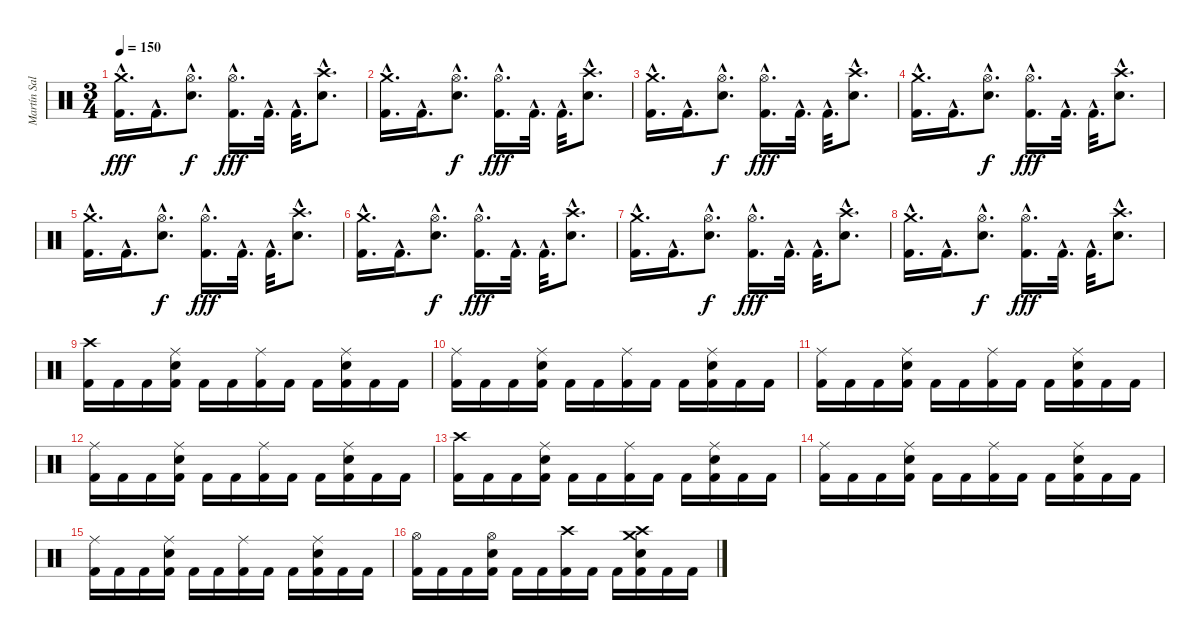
\track ("Martín Salariato" "Martín Sal") {instrument percussion}
\staff {score}
\articulation defaults
\ts (3 4)
\tempo 150
\clef neutral
\ks c
("Crash medium (hit)"{hac} "Kick (hit) 2"{hac}).16{d dy fff} "Kick (hit) 2"{hac}.16{d} ("Hi-Hat (open)"{hac} "Snare (hit) 2"{hac}).8{d dy f} ("Hi-Hat (open)"{hac} "Kick (hit) 2"{hac}).16{d dy fff} "Kick (hit) 2"{hac}.32{d} "Kick (hit) 2"{hac}.32{d} ("Crash high (hit)"{hac} "Snare (hit) 2"{hac}).8{d} |
("Crash medium (hit)"{hac} "Kick (hit) 2"{hac}).16{d} "Kick (hit) 2"{hac}.16{d} ("Hi-Hat (open)"{hac} "Snare (hit) 2"{hac}).8{d dy f} ("Hi-Hat (open)"{hac} "Kick (hit) 2"{hac}).16{d dy fff} "Kick (hit) 2"{hac}.32{d} "Kick (hit) 2"{hac}.32{d} ("Crash high (hit)"{hac} "Snare (hit) 2"{hac}).8{d} |
("Crash medium (hit)"{hac} "Kick (hit) 2"{hac}).16{d} "Kick (hit) 2"{hac}.16{d} ("Hi-Hat (open)"{hac} "Snare (hit) 2"{hac}).8{d dy f} ("Hi-Hat (open)"{hac} "Kick (hit) 2"{hac}).16{d dy fff} "Kick (hit) 2"{hac}.32{d} "Kick (hit) 2"{hac}.32{d} ("Crash high (hit)"{hac} "Snare (hit) 2"{hac}).8{d} |
("Crash medium (hit)"{hac} "Kick (hit) 2"{hac}).16{d} "Kick (hit) 2"{hac}.16{d} ("Hi-Hat (open)"{hac} "Snare (hit) 2"{hac}).8{d dy f} ("Hi-Hat (open)"{hac} "Kick (hit) 2"{hac}).16{d dy fff} "Kick (hit) 2"{hac}.32{d} "Kick (hit) 2"{hac}.32{d} ("Crash high (hit)"{hac} "Snare (hit) 2"{hac}).8{d} |
("Crash medium (hit)"{hac} "Kick (hit) 2"{hac}).16{d} "Kick (hit) 2"{hac}.16{d} ("Hi-Hat (open)"{hac} "Snare (hit) 2"{hac}).8{d dy f} ("Hi-Hat (open)"{hac} "Kick (hit) 2"{hac}).16{d dy fff} "Kick (hit) 2"{hac}.32{d} "Kick (hit) 2"{hac}.32{d} ("Crash high (hit)"{hac} "Snare (hit) 2"{hac}).8{d} |
("Crash medium (hit)"{hac} "Kick (hit) 2"{hac}).16{d} "Kick (hit) 2"{hac}.16{d} ("Hi-Hat (open)"{hac} "Snare (hit) 2"{hac}).8{d dy f} ("Hi-Hat (open)"{hac} "Kick (hit) 2"{hac}).16{d dy fff} "Kick (hit) 2"{hac}.32{d} "Kick (hit) 2"{hac}.32{d} ("Crash high (hit)"{hac} "Snare (hit) 2"{hac}).8{d} |
("Crash medium (hit)"{hac} "Kick (hit) 2"{hac}).16{d} "Kick (hit) 2"{hac}.16{d} ("Hi-Hat (open)"{hac} "Snare (hit) 2"{hac}).8{d dy f} ("Hi-Hat (open)"{hac} "Kick (hit) 2"{hac}).16{d dy fff} "Kick (hit) 2"{hac}.32{d} "Kick (hit) 2"{hac}.32{d} ("Crash high (hit)"{hac} "Snare (hit) 2"{hac}).8{d} |
("Crash medium (hit)"{hac} "Kick (hit) 2"{hac}).16{d} "Kick (hit) 2"{hac}.16{d} ("Hi-Hat (open)"{hac} "Snare (hit) 2"{hac}).8{d dy f} ("Hi-Hat (open)"{hac} "Kick (hit) 2"{hac}).16{d dy fff} "Kick (hit) 2"{hac}.32{d} "Kick (hit) 2"{hac}.32{d} ("Crash high (hit)"{hac} "Snare (hit) 2"{hac}).8{d} |
("Crash high (hit)" "Kick (hit) 2").16 "Kick (hit) 2".16 "Kick (hit) 2".16 ("Ride (middle)" "Snare (hit) 2" "Kick (hit) 2").16 "Kick (hit) 2".16 "Kick (hit) 2".16 ("Ride (middle)" "Kick (hit) 2").16 "Kick (hit) 2".16 "Kick (hit) 2".16 ("Ride (middle)" "Snare (hit) 2" "Kick (hit) 2").16 "Kick (hit) 2".16 "Kick (hit) 2".16 |
("Ride (middle)" "Kick (hit) 2").16 "Kick (hit) 2".16 "Kick (hit) 2".16 ("Ride (middle)" "Snare (hit) 2" "Kick (hit) 2").16 "Kick (hit) 2".16 "Kick (hit) 2".16 ("Ride (middle)" "Kick (hit) 2").16 "Kick (hit) 2".16 "Kick (hit) 2".16 ("Ride (middle)" "Snare (hit) 2" "Kick (hit) 2").16 "Kick (hit) 2".16 "Kick (hit) 2".16 |
("Ride (middle)" "Kick (hit) 2").16 "Kick (hit) 2".16 "Kick (hit) 2".16 ("Ride (middle)" "Snare (hit) 2" "Kick (hit) 2").16 "Kick (hit) 2".16 "Kick (hit) 2".16 ("Ride (middle)" "Kick (hit) 2").16 "Kick (hit) 2".16 "Kick (hit) 2".16 ("Ride (middle)" "Snare (hit) 2" "Kick (hit) 2").16 "Kick (hit) 2".16 "Kick (hit) 2".16 |
("Ride (middle)" "Kick (hit) 2").16 "Kick (hit) 2".16 "Kick (hit) 2".16 ("Ride (middle)" "Snare (hit) 2" "Kick (hit) 2").16 "Kick (hit) 2".16 "Kick (hit) 2".16 ("Ride (middle)" "Kick (hit) 2").16 "Kick (hit) 2".16 "Kick (hit) 2".16 ("Ride (middle)" "Snare (hit) 2" "Kick (hit) 2").16 "Kick (hit) 2".16 "Kick (hit) 2".16 |
("Crash high (hit)" "Kick (hit) 2").16 "Kick (hit) 2".16 "Kick (hit) 2".16 ("Ride (middle)" "Snare (hit) 2" "Kick (hit) 2").16 "Kick (hit) 2".16 "Kick (hit) 2".16 ("Ride (middle)" "Kick (hit) 2").16 "Kick (hit) 2".16 "Kick (hit) 2".16 ("Ride (middle)" "Snare (hit) 2" "Kick (hit) 2").16 "Kick (hit) 2".16 "Kick (hit) 2".16 |
("Ride (middle)" "Kick (hit) 2").16 "Kick (hit) 2".16 "Kick (hit) 2".16 ("Ride (middle)" "Snare (hit) 2" "Kick (hit) 2").16 "Kick (hit) 2".16 "Kick (hit) 2".16 ("Ride (middle)" "Kick (hit) 2").16 "Kick (hit) 2".16 "Kick (hit) 2".16 ("Ride (middle)" "Snare (hit) 2" "Kick (hit) 2").16 "Kick (hit) 2".16 "Kick (hit) 2".16 |
("Ride (middle)" "Kick (hit) 2").16 "Kick (hit) 2".16 "Kick (hit) 2".16 ("Ride (middle)" "Snare (hit) 2" "Kick (hit) 2").16 "Kick (hit) 2".16 "Kick (hit) 2".16 ("Ride (middle)" "Kick (hit) 2").16 "Kick (hit) 2".16 "Kick (hit) 2".16 ("Ride (middle)" "Snare (hit) 2" "Kick (hit) 2").16 "Kick (hit) 2".16 "Kick (hit) 2".16 |
("Hi-Hat (open)" "Kick (hit) 2").16 "Kick (hit) 2".16 "Kick (hit) 2".16 ("Hi-Hat (open)" "Snare (hit) 2" "Kick (hit) 2").16 "Kick (hit) 2".16 "Kick (hit) 2".16 ("Crash high (hit)" "Kick (hit) 2").16 "Kick (hit) 2".16 "Kick (hit) 2".16 ("Crash high (hit)" "Crash medium (hit)" "Snare (hit) 2" "Kick (hit) 2").16 "Kick (hit) 2".16 "Kick (hit) 2".16
